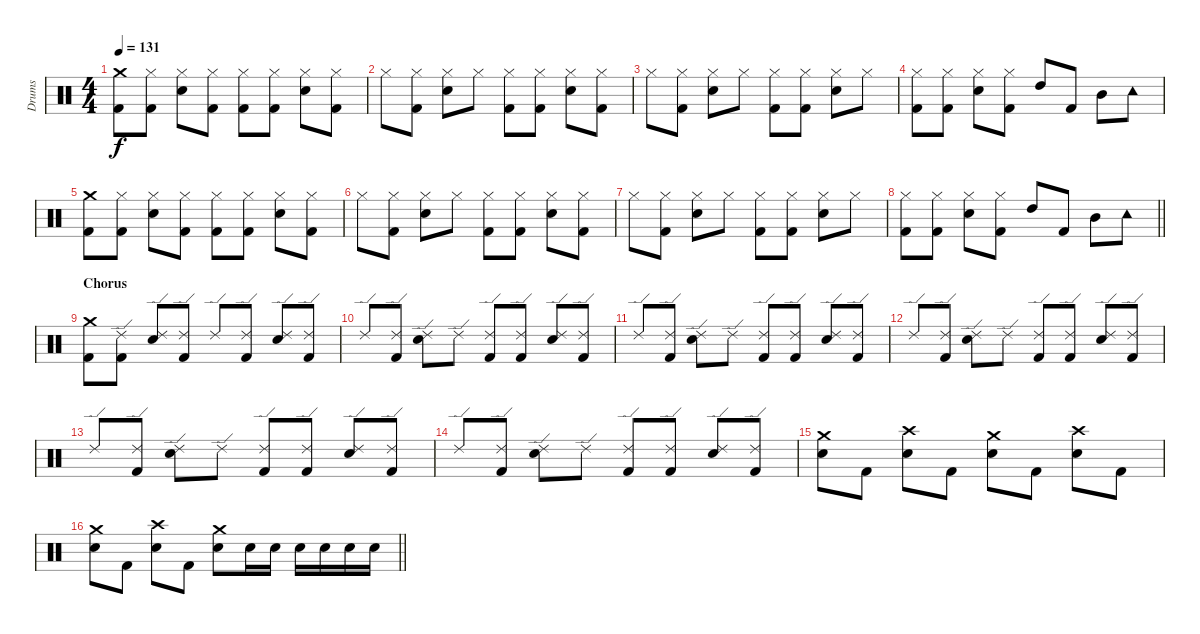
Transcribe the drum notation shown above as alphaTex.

\track ("Drums" "Drums") {instrument percussion}
\staff {score}
\articulation defaults
\ts (4 4)
\tempo 131
\clef neutral
\ks c
("Crash medium (hit)" "Kick (hit) 2").8{dy f} ("Hi-Hat (closed)" "Kick (hit) 2").8 ("Hi-Hat (closed)" "Snare (hit) 2").8 ("Hi-Hat (closed)" "Kick (hit) 2").8 ("Hi-Hat (closed)" "Kick (hit) 2").8 ("Hi-Hat (closed)" "Kick (hit) 2").8 ("Hi-Hat (closed)" "Snare (hit) 2").8 ("Hi-Hat (closed)" "Kick (hit) 2").8 |
"Hi-Hat (closed)".8 ("Hi-Hat (closed)" "Kick (hit) 2").8 ("Hi-Hat (closed)" "Snare (hit) 2").8 "Hi-Hat (closed)".8 ("Hi-Hat (closed)" "Kick (hit) 2").8 ("Hi-Hat (closed)" "Kick (hit) 2").8 ("Hi-Hat (closed)" "Snare (hit) 2").8 ("Hi-Hat (closed)" "Kick (hit) 2").8 |
"Hi-Hat (closed)".8 ("Hi-Hat (closed)" "Kick (hit) 2").8 ("Hi-Hat (closed)" "Snare (hit) 2").8 "Hi-Hat (closed)".8 ("Hi-Hat (closed)" "Kick (hit) 2").8 ("Hi-Hat (closed)" "Kick (hit) 2").8 ("Hi-Hat (closed)" "Snare (hit) 2").8 "Hi-Hat (closed)".8 |
("Hi-Hat (closed)" "Kick (hit) 2").8 ("Hi-Hat (closed)" "Kick (hit) 2").8 ("Hi-Hat (closed)" "Snare (hit) 2").8 ("Hi-Hat (closed)" "Kick (hit) 2").8 "High Tom (hit)".8 "Kick (hit) 2".8 "Mid Tom (hit)".8 "Tambourine (hit)".8 |
("Crash medium (hit)" "Kick (hit) 2").8 ("Hi-Hat (closed)" "Kick (hit) 2").8 ("Hi-Hat (closed)" "Snare (hit) 2").8 ("Hi-Hat (closed)" "Kick (hit) 2").8 ("Hi-Hat (closed)" "Kick (hit) 2").8 ("Hi-Hat (closed)" "Kick (hit) 2").8 ("Hi-Hat (closed)" "Snare (hit) 2").8 ("Hi-Hat (closed)" "Kick (hit) 2").8 |
"Hi-Hat (closed)".8 ("Hi-Hat (closed)" "Kick (hit) 2").8 ("Hi-Hat (closed)" "Snare (hit) 2").8 "Hi-Hat (closed)".8 ("Hi-Hat (closed)" "Kick (hit) 2").8 ("Hi-Hat (closed)" "Kick (hit) 2").8 ("Hi-Hat (closed)" "Snare (hit) 2").8 ("Hi-Hat (closed)" "Kick (hit) 2").8 |
"Hi-Hat (closed)".8 ("Hi-Hat (closed)" "Kick (hit) 2").8 ("Hi-Hat (closed)" "Snare (hit) 2").8 "Hi-Hat (closed)".8 ("Hi-Hat (closed)" "Kick (hit) 2").8 ("Hi-Hat (closed)" "Kick (hit) 2").8 ("Hi-Hat (closed)" "Snare (hit) 2").8 "Hi-Hat (closed)".8 |
\barLineRight lightlight
("Hi-Hat (closed)" "Kick (hit) 2").8 ("Hi-Hat (closed)" "Kick (hit) 2").8 ("Hi-Hat (closed)" "Snare (hit) 2").8 ("Hi-Hat (closed)" "Kick (hit) 2").8 "High Tom (hit)".8 "Kick (hit) 2".8 "Mid Tom (hit)".8 "Tambourine (hit)".8 |
\section ("" "Chorus")
("Crash medium (hit)" "Kick (hit) 2").8 ("Ride (edge) 2" "Kick (hit) 2").8 ("Ride (edge) 2" "Snare (hit) 2").8 ("Ride (edge) 2" "Kick (hit) 2").8 "Ride (edge) 2".8 ("Ride (edge) 2" "Kick (hit) 2").8 ("Ride (edge) 2" "Snare (hit) 2").8 ("Ride (edge) 2" "Kick (hit) 2").8 |
"Ride (edge) 2".8 ("Ride (edge) 2" "Kick (hit) 2").8 ("Ride (edge) 2" "Snare (hit) 2").8 "Ride (edge) 2".8 ("Ride (edge) 2" "Kick (hit) 2").8 ("Ride (edge) 2" "Kick (hit) 2").8 ("Ride (edge) 2" "Snare (hit) 2").8 ("Ride (edge) 2" "Kick (hit) 2").8 |
"Ride (edge) 2".8 ("Ride (edge) 2" "Kick (hit) 2").8 ("Ride (edge) 2" "Snare (hit) 2").8 "Ride (edge) 2".8 ("Ride (edge) 2" "Kick (hit) 2").8 ("Ride (edge) 2" "Kick (hit) 2").8 ("Ride (edge) 2" "Snare (hit) 2").8 ("Ride (edge) 2" "Kick (hit) 2").8 |
"Ride (edge) 2".8 ("Ride (edge) 2" "Kick (hit) 2").8 ("Ride (edge) 2" "Snare (hit) 2").8 "Ride (edge) 2".8 ("Ride (edge) 2" "Kick (hit) 2").8 ("Ride (edge) 2" "Kick (hit) 2").8 ("Ride (edge) 2" "Snare (hit) 2").8 ("Ride (edge) 2" "Kick (hit) 2").8 |
"Ride (edge) 2".8 ("Ride (edge) 2" "Kick (hit) 2").8 ("Ride (edge) 2" "Snare (hit) 2").8 "Ride (edge) 2".8 ("Ride (edge) 2" "Kick (hit) 2").8 ("Ride (edge) 2" "Kick (hit) 2").8 ("Ride (edge) 2" "Snare (hit) 2").8 ("Ride (edge) 2" "Kick (hit) 2").8 |
"Ride (edge) 2".8 ("Ride (edge) 2" "Kick (hit) 2").8 ("Ride (edge) 2" "Snare (hit) 2").8 "Ride (edge) 2".8 ("Ride (edge) 2" "Kick (hit) 2").8 ("Ride (edge) 2" "Kick (hit) 2").8 ("Ride (edge) 2" "Snare (hit) 2").8 ("Ride (edge) 2" "Kick (hit) 2").8 |
("Crash medium (hit)" "Snare (hit) 2").8 "Kick (hit) 2".8 ("Crash high (hit)" "Snare (hit) 2").8 "Kick (hit) 2".8 ("Crash medium (hit)" "Snare (hit) 2").8 "Kick (hit) 2".8 ("Crash high (hit)" "Snare (hit) 2").8 "Kick (hit) 2".8 |
\barLineRight lightlight
("Crash medium (hit)" "Snare (hit) 2").8 "Kick (hit) 2".8 ("Crash high (hit)" "Snare (hit) 2").8 "Kick (hit) 2".8 ("Crash medium (hit)" "Snare (hit) 2").8 "Snare (hit) 2".16 "Snare (hit) 2".16 "Snare (hit) 2".16 "Snare (hit) 2".16 "Snare (hit) 2".16 "Snare (hit) 2".16
